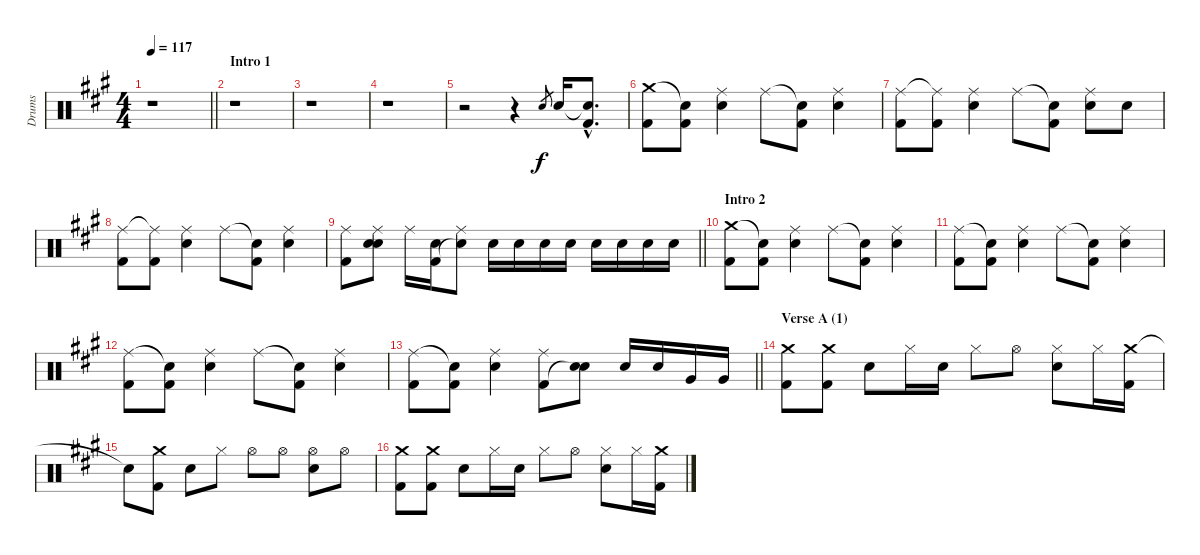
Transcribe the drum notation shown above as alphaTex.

\track ("Drums" "Drums") {instrument percussion}
\staff {score}
\articulation defaults
\ts (4 4)
\tempo 117
\clef neutral
\barLineRight lightlight
\ks f#minor
r.1{dy f} |
\section ("" "Intro 1")
r.1 |
r.1 |
r.1 |
r.2 r.4 "Electric Snare (hit)".8{gr} "Electric Snare (hit)".16 ("Snare (hit)"{hac t} "Kick (hit) 2"{hac}).8{d} |
("Crash medium (hit)" "Kick (hit) 2").8 ("Snare (hit)"{t} "Kick (hit) 2").8 ("Ride (middle)" "Electric Snare (hit)").4 "Ride (middle)".8 ("Snare (hit)"{t} "Kick (hit) 2").8 ("Ride (middle)" "Electric Snare (hit)").4 |
("Ride (middle)" "Kick (hit) 2").8 ("Ride (middle)"{t} "Kick (hit) 2").8 ("Ride (middle)" "Electric Snare (hit)").4 "Ride (middle)".8 ("Snare (hit)"{t} "Kick (hit) 2").8 ("Ride (middle)" "Electric Snare (hit)").8 "Electric Snare (hit)".8 |
("Ride (middle)" "Kick (hit) 2").8 ("Ride (middle)"{t} "Kick (hit) 2").8 ("Ride (middle)" "Electric Snare (hit)").4 "Ride (middle)".8 ("Snare (hit)"{t} "Kick (hit) 2").8 ("Ride (middle)" "Electric Snare (hit)").4 |
\barLineRight lightlight
("Ride (middle)" "Kick (hit) 2").8 ("Ride (middle)" "Electric Snare (hit)" "Snare (hit)").8 "Ride (middle)".16 ("Electric Snare (hit)" "Kick (hit) 2").16 ("Ride (middle)" "Snare (hit)"{t}).8 "Electric Snare (hit)".16 "Electric Snare (hit)".16 "Electric Snare (hit)".16 "Electric Snare (hit)".16 "Electric Snare (hit)".16 "Electric Snare (hit)".16 "Electric Snare (hit)".16 "Electric Snare (hit)".16 |
\section ("" "Intro 2")
("Crash medium (hit)" "Kick (hit) 2").8 ("Snare (hit)"{t} "Kick (hit) 2").8 ("Ride (middle)" "Electric Snare (hit)").4 "Ride (middle)".8 ("Snare (hit)"{t} "Kick (hit) 2").8 ("Ride (middle)" "Electric Snare (hit)").4 |
("Ride (middle)" "Kick (hit) 2").8 ("Snare (hit)"{t} "Kick (hit) 2").8 ("Ride (middle)" "Electric Snare (hit)").4 "Ride (middle)".8 ("Snare (hit)"{t} "Kick (hit) 2").8 ("Ride (middle)" "Electric Snare (hit)").4 |
("Ride (middle)" "Kick (hit) 2").8 ("Snare (hit)"{t} "Kick (hit) 2").8 ("Ride (middle)" "Electric Snare (hit)").4 "Ride (middle)".8 ("Snare (hit)"{t} "Kick (hit) 2").8 ("Ride (middle)" "Electric Snare (hit)").4 |
\barLineRight lightlight
("Ride (middle)" "Kick (hit) 2").8 ("Snare (hit)"{t} "Kick (hit) 2").8 ("Ride (middle)" "Electric Snare (hit)").4 ("Ride (middle)" "Kick (hit) 2").8 ("Electric Snare (hit)" "Snare (hit)"{t}).8 "Electric Snare (hit)".16 "Electric Snare (hit)".16 "Very Low Tom (hit)".16 "Very Low Tom (hit)".16 |
\section ("" "Verse A (1)")
("Crash medium (hit)" "Kick (hit) 2").8 ("Crash medium (hit)" "Kick (hit) 2").8 "Electric Snare (hit)".8 "Hi-Hat (closed)".16 "Electric Snare (hit)".16 "Hi-Hat (closed)".8 "Hi-Hat (open)".8 ("Hi-Hat (closed)" "Electric Snare (hit)").8 "Hi-Hat (closed)".16 ("Crash medium (hit)" "Kick (hit) 2").16 |
"Snare (hit)"{t}.8 ("Crash medium (hit)" "Kick (hit) 2").8 "Electric Snare (hit)".8 "Hi-Hat (closed)".8 "Hi-Hat (open)".8 "Hi-Hat (open)".8 ("Hi-Hat (open)" "Electric Snare (hit)").8 "Hi-Hat (open)".8 |
("Crash medium (hit)" "Kick (hit) 2").8 ("Crash medium (hit)" "Kick (hit) 2").8 "Electric Snare (hit)".8 "Hi-Hat (closed)".16 "Electric Snare (hit)".16 "Hi-Hat (closed)".8 "Hi-Hat (open)".8 ("Hi-Hat (closed)" "Electric Snare (hit)").8 "Hi-Hat (closed)".16 ("Crash medium (hit)" "Kick (hit) 2").16
